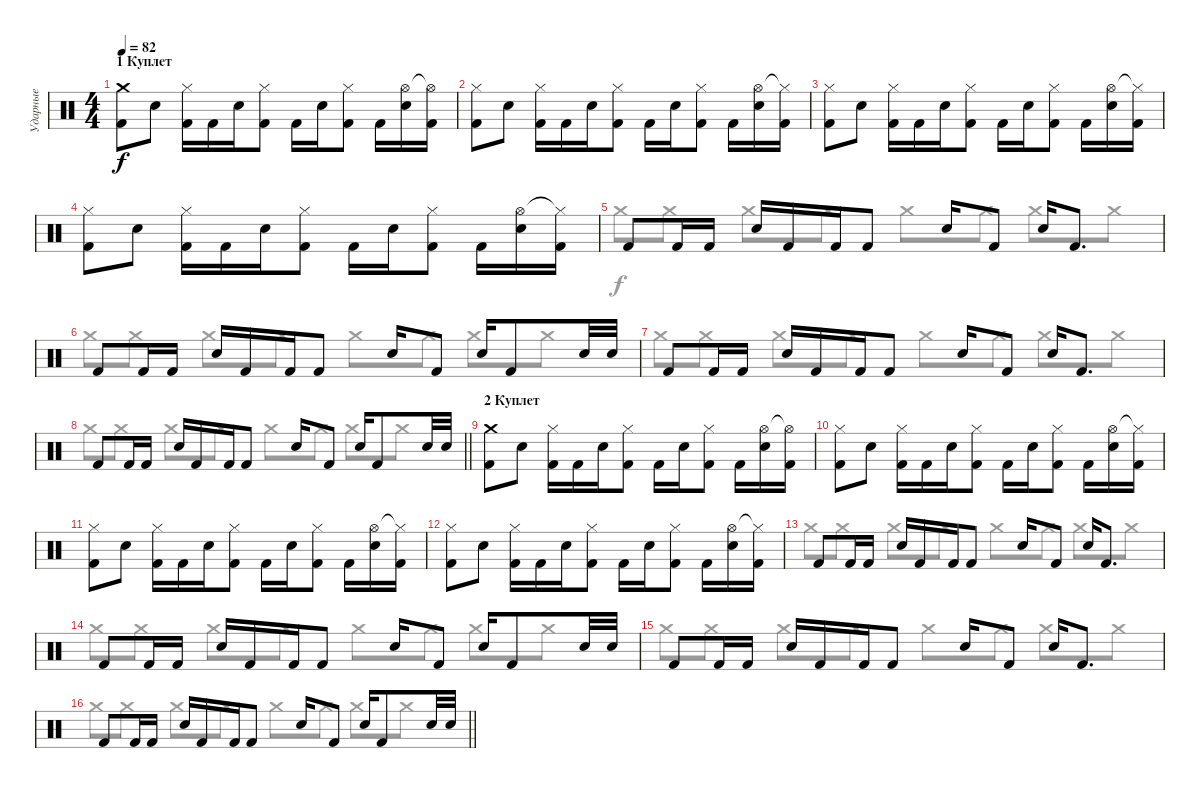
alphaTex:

\track ("Ударные" "Ударные") {instrument percussion}
\staff {score}
\articulation defaults
\voice
\ts (4 4)
\section ("" "1 Куплет")
\tempo 82
\clef neutral
\ks c
("Crash medium (hit)" "Kick (hit) 2").8{dy f} "Snare (hit) 2".8 ("Hi-Hat (closed)" "Kick (hit) 2").16 "Kick (hit) 2".16 "Snare (hit) 2".16 ("Hi-Hat (closed)" "Kick (hit) 2").8 "Kick (hit) 2".16 "Snare (hit) 2".16 ("Hi-Hat (closed)" "Kick (hit) 2").8 "Kick (hit) 2".16 ("Hi-Hat (open)" "Snare (hit) 2").16 ("Hi-Hat (open)"{t} "Kick (hit) 2").16 |
("Hi-Hat (closed)" "Kick (hit) 2").8 "Snare (hit) 2".8 ("Hi-Hat (closed)" "Kick (hit) 2").16 "Kick (hit) 2".16 "Snare (hit) 2".16 ("Hi-Hat (closed)" "Kick (hit) 2").8 "Kick (hit) 2".16 "Snare (hit) 2".16 ("Hi-Hat (closed)" "Kick (hit) 2").8 "Kick (hit) 2".16 ("Hi-Hat (open)" "Snare (hit) 2").16 ("Hi-Hat (closed)"{t} "Kick (hit) 2").16 |
("Hi-Hat (closed)" "Kick (hit) 2").8 "Snare (hit) 2".8 ("Hi-Hat (closed)" "Kick (hit) 2").16 "Kick (hit) 2".16 "Snare (hit) 2".16 ("Hi-Hat (closed)" "Kick (hit) 2").8 "Kick (hit) 2".16 "Snare (hit) 2".16 ("Hi-Hat (closed)" "Kick (hit) 2").8 "Kick (hit) 2".16 ("Hi-Hat (open)" "Snare (hit) 2").16 ("Hi-Hat (closed)"{t} "Kick (hit) 2").16 |
("Hi-Hat (closed)" "Kick (hit) 2").8 "Snare (hit) 2".8 ("Hi-Hat (closed)" "Kick (hit) 2").16 "Kick (hit) 2".16 "Snare (hit) 2".16 ("Hi-Hat (closed)" "Kick (hit) 2").8 "Kick (hit) 2".16 "Snare (hit) 2".16 ("Hi-Hat (closed)" "Kick (hit) 2").8 "Kick (hit) 2".16 ("Hi-Hat (open)" "Snare (hit) 2").16 ("Hi-Hat (closed)"{t} "Kick (hit) 2").16 |
"Kick (hit) 2".8 "Kick (hit) 2".16 "Kick (hit) 2".16 "Snare (hit) 2".16 "Kick (hit) 2".16 "Kick (hit) 2".16 "Kick (hit) 2".8 "Snare (hit) 2".16 "Kick (hit) 2".8 "Snare (hit) 2".16 "Kick (hit) 2".8{d} |
"Kick (hit) 2".8 "Kick (hit) 2".16 "Kick (hit) 2".16 "Snare (hit) 2".16 "Kick (hit) 2".16 "Kick (hit) 2".16 "Kick (hit) 2".8 "Snare (hit) 2".16 "Kick (hit) 2".8 "Snare (hit) 2".16 "Kick (hit) 2".8 "Snare (hit) 2".32 "Snare (hit) 2".32 |
"Kick (hit) 2".8 "Kick (hit) 2".16 "Kick (hit) 2".16 "Snare (hit) 2".16 "Kick (hit) 2".16 "Kick (hit) 2".16 "Kick (hit) 2".8 "Snare (hit) 2".16 "Kick (hit) 2".8 "Snare (hit) 2".16 "Kick (hit) 2".8{d} |
\barLineRight lightlight "Kick (hit) 2".8 "Kick (hit) 2".16 "Kick (hit) 2".16 "Snare (hit) 2".16 "Kick (hit) 2".16 "Kick (hit) 2".16 "Kick (hit) 2".8 "Snare (hit) 2".16 "Kick (hit) 2".8 "Snare (hit) 2".16 "Kick (hit) 2".8 "Snare (hit) 2".32 "Snare (hit) 2".32
|
\section ("" "2 Куплет")
("Crash medium (hit)" "Kick (hit) 2").8 "Snare (hit) 2".8 ("Hi-Hat (closed)" "Kick (hit) 2").16 "Kick (hit) 2".16 "Snare (hit) 2".16 ("Hi-Hat (closed)" "Kick (hit) 2").8 "Kick (hit) 2".16 "Snare (hit) 2".16 ("Hi-Hat (closed)" "Kick (hit) 2").8 "Kick (hit) 2".16 ("Hi-Hat (open)" "Snare (hit) 2").16 ("Hi-Hat (open)"{t} "Kick (hit) 2").16 |
("Hi-Hat (closed)" "Kick (hit) 2").8 "Snare (hit) 2".8 ("Hi-Hat (closed)" "Kick (hit) 2").16 "Kick (hit) 2".16 "Snare (hit) 2".16 ("Hi-Hat (closed)" "Kick (hit) 2").8 "Kick (hit) 2".16 "Snare (hit) 2".16 ("Hi-Hat (closed)" "Kick (hit) 2").8 "Kick (hit) 2".16 ("Hi-Hat (open)" "Snare (hit) 2").16 ("Hi-Hat (closed)"{t} "Kick (hit) 2").16 |
("Hi-Hat (closed)" "Kick (hit) 2").8 "Snare (hit) 2".8 ("Hi-Hat (closed)" "Kick (hit) 2").16 "Kick (hit) 2".16 "Snare (hit) 2".16 ("Hi-Hat (closed)" "Kick (hit) 2").8 "Kick (hit) 2".16 "Snare (hit) 2".16 ("Hi-Hat (closed)" "Kick (hit) 2").8 "Kick (hit) 2".16 ("Hi-Hat (open)" "Snare (hit) 2").16 ("Hi-Hat (closed)"{t} "Kick (hit) 2").16 |
("Hi-Hat (closed)" "Kick (hit) 2").8 "Snare (hit) 2".8 ("Hi-Hat (closed)" "Kick (hit) 2").16 "Kick (hit) 2".16 "Snare (hit) 2".16 ("Hi-Hat (closed)" "Kick (hit) 2").8 "Kick (hit) 2".16 "Snare (hit) 2".16 ("Hi-Hat (closed)" "Kick (hit) 2").8 "Kick (hit) 2".16 ("Hi-Hat (open)" "Snare (hit) 2").16 ("Hi-Hat (closed)"{t} "Kick (hit) 2").16 |
"Kick (hit) 2".8 "Kick (hit) 2".16 "Kick (hit) 2".16 "Snare (hit) 2".16 "Kick (hit) 2".16 "Kick (hit) 2".16 "Kick (hit) 2".8 "Snare (hit) 2".16 "Kick (hit) 2".8 "Snare (hit) 2".16 "Kick (hit) 2".8{d} |
"Kick (hit) 2".8 "Kick (hit) 2".16 "Kick (hit) 2".16 "Snare (hit) 2".16 "Kick (hit) 2".16 "Kick (hit) 2".16 "Kick (hit) 2".8 "Snare (hit) 2".16 "Kick (hit) 2".8 "Snare (hit) 2".16 "Kick (hit) 2".8 "Snare (hit) 2".32 "Snare (hit) 2".32 |
"Kick (hit) 2".8 "Kick (hit) 2".16 "Kick (hit) 2".16 "Snare (hit) 2".16 "Kick (hit) 2".16 "Kick (hit) 2".16 "Kick (hit) 2".8 "Snare (hit) 2".16 "Kick (hit) 2".8 "Snare (hit) 2".16 "Kick (hit) 2".8{d} |
\barLineRight lightlight "Kick (hit) 2".8 "Kick (hit) 2".16 "Kick (hit) 2".16 "Snare (hit) 2".16 "Kick (hit) 2".16 "Kick (hit) 2".16 "Kick (hit) 2".8 "Snare (hit) 2".16 "Kick (hit) 2".8 "Snare (hit) 2".16 "Kick (hit) 2".8 "Snare (hit) 2".32 "Snare (hit) 2".32
\voice
\clef neutral
\ottava regular
\simile none
\ks c
|
|
|
|
"Crash medium (hit)".8 "Crash medium (hit)".8 "Crash medium (hit)".8 "Crash medium (hit)".8 "Crash medium (hit)".8 "Crash medium (hit)".8 "Crash medium (hit)".8 "Crash medium (hit)".8 |
"Crash medium (hit)".8 "Crash medium (hit)".8 "Crash medium (hit)".8 "Crash medium (hit)".8 "Crash medium (hit)".8 "Crash medium (hit)".8 "Crash medium (hit)".8 "Crash medium (hit)".8 |
"Crash medium (hit)".8 "Crash medium (hit)".8 "Crash medium (hit)".8 "Crash medium (hit)".8 "Crash medium (hit)".8 "Crash medium (hit)".8 "Crash medium (hit)".8 "Crash medium (hit)".8 |
\barLineRight lightlight "Crash medium (hit)".8 "Crash medium (hit)".8 "Crash medium (hit)".8 "Crash medium (hit)".8 "Crash medium (hit)".8 "Crash medium (hit)".8 "Crash medium (hit)".8 "Crash medium (hit)".8
|
|
|
|
|
"Crash medium (hit)".8 "Crash medium (hit)".8 "Crash medium (hit)".8 "Crash medium (hit)".8 "Crash medium (hit)".8 "Crash medium (hit)".8 "Crash medium (hit)".8 "Crash medium (hit)".8 |
"Crash medium (hit)".8 "Crash medium (hit)".8 "Crash medium (hit)".8 "Crash medium (hit)".8 "Crash medium (hit)".8 "Crash medium (hit)".8 "Crash medium (hit)".8 "Crash medium (hit)".8 |
"Crash medium (hit)".8 "Crash medium (hit)".8 "Crash medium (hit)".8 "Crash medium (hit)".8 "Crash medium (hit)".8 "Crash medium (hit)".8 "Crash medium (hit)".8 "Crash medium (hit)".8 |
\barLineRight lightlight "Crash medium (hit)".8 "Crash medium (hit)".8 "Crash medium (hit)".8 "Crash medium (hit)".8 "Crash medium (hit)".8 "Crash medium (hit)".8 "Crash medium (hit)".8 "Crash medium (hit)".8
